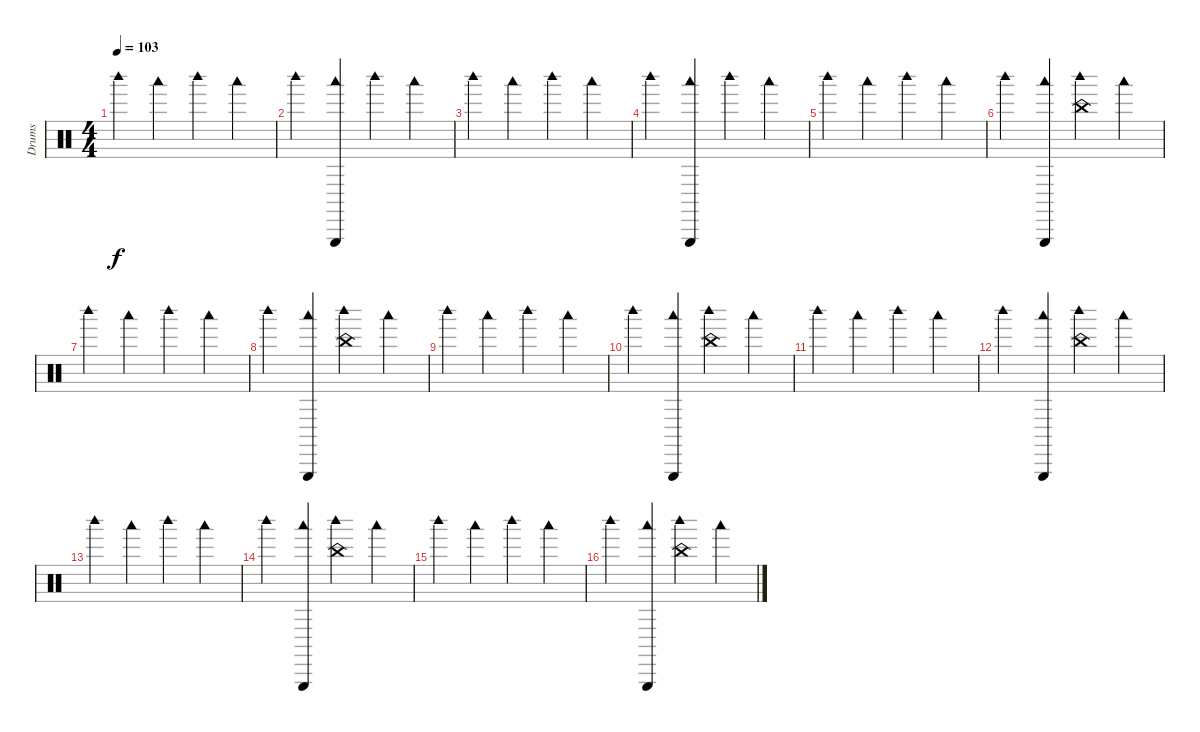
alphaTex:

\track ("Drums" "Drums") {instrument percussion}
\staff {score}
\articulation defaults
\ts (4 4)
\tempo 103
\clef neutral
\ks c "Woodblock high (hit)".4{dy f} "Woodblock low (hit)".4 "Woodblock high (hit)".4 "Woodblock low (hit)".4
|
"Woodblock high (hit)".4 ("Woodblock low (hit)" "Triangle (hit)").4 "Woodblock high (hit)".4 "Woodblock low (hit)".4 |
"Woodblock high (hit)".4 "Woodblock low (hit)".4 "Woodblock high (hit)".4 "Woodblock low (hit)".4 |
"Woodblock high (hit)".4 ("Woodblock low (hit)" "Triangle (hit)").4 "Woodblock high (hit)".4 "Woodblock low (hit)".4 |
"Woodblock high (hit)".4 "Woodblock low (hit)".4 "Woodblock high (hit)".4 "Woodblock low (hit)".4 |
"Woodblock high (hit)".4 ("Woodblock low (hit)" "Triangle (hit)").4 ("Woodblock high (hit)" "China (hit)").4 "Woodblock low (hit)".4 |
"Woodblock high (hit)".4 "Woodblock low (hit)".4 "Woodblock high (hit)".4 "Woodblock low (hit)".4 |
"Woodblock high (hit)".4 ("Woodblock low (hit)" "Triangle (hit)").4 ("Woodblock high (hit)" "China (hit)").4 "Woodblock low (hit)".4 |
"Woodblock high (hit)".4 "Woodblock low (hit)".4 "Woodblock high (hit)".4 "Woodblock low (hit)".4 |
"Woodblock high (hit)".4 ("Woodblock low (hit)" "Triangle (hit)").4 ("Woodblock high (hit)" "China (hit)").4 "Woodblock low (hit)".4 |
"Woodblock high (hit)".4 "Woodblock low (hit)".4 "Woodblock high (hit)".4 "Woodblock low (hit)".4 |
"Woodblock high (hit)".4 ("Woodblock low (hit)" "Triangle (hit)").4 ("Woodblock high (hit)" "China (hit)").4 "Woodblock low (hit)".4 |
"Woodblock high (hit)".4 "Woodblock low (hit)".4 "Woodblock high (hit)".4 "Woodblock low (hit)".4 |
"Woodblock high (hit)".4 ("Woodblock low (hit)" "Triangle (hit)").4 ("Woodblock high (hit)" "China (hit)").4 "Woodblock low (hit)".4 |
"Woodblock high (hit)".4 "Woodblock low (hit)".4 "Woodblock high (hit)".4 "Woodblock low (hit)".4 |
"Woodblock high (hit)".4 ("Woodblock low (hit)" "Triangle (hit)").4 ("Woodblock high (hit)" "China (hit)").4 "Woodblock low (hit)".4
